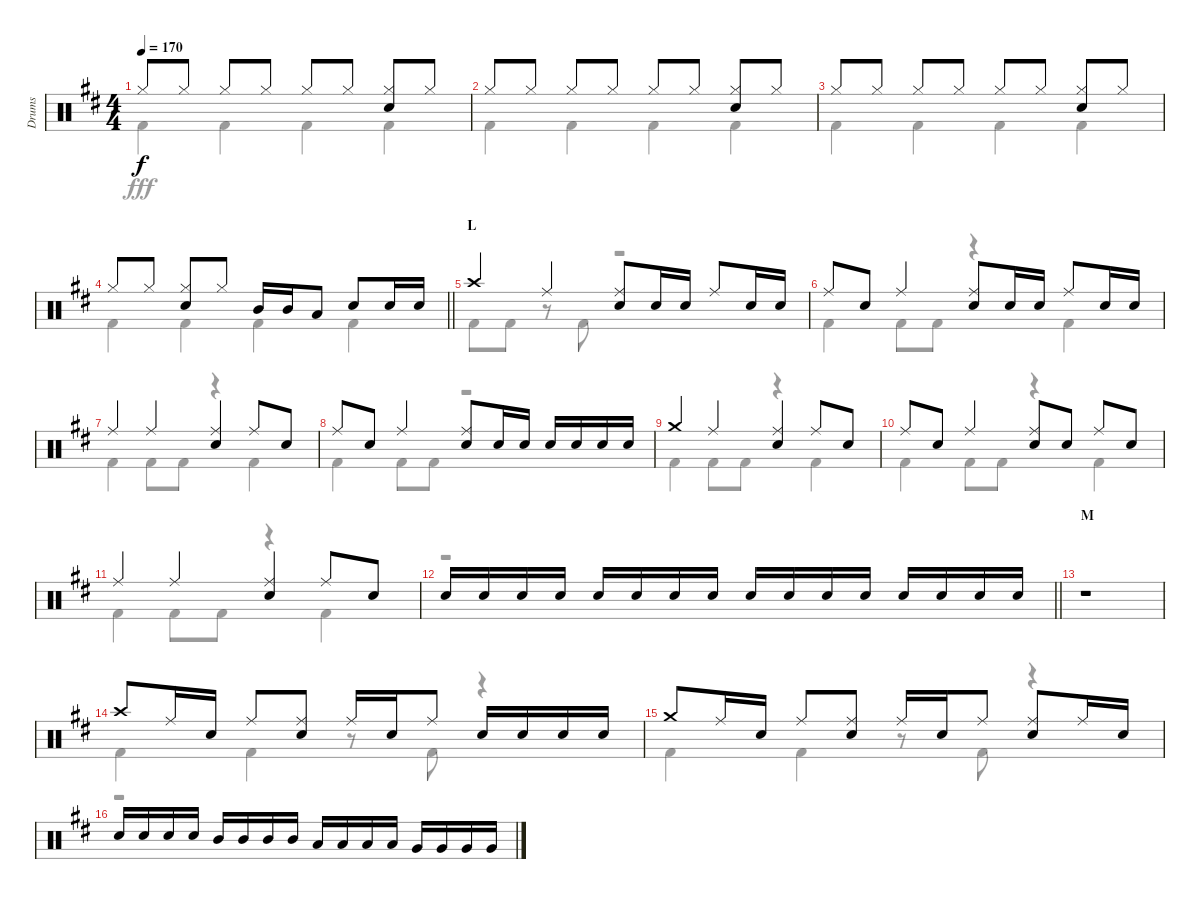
\track ("Drums" "Drums") {instrument percussion}
\staff {score}
\articulation defaults
\voice
\ts (4 4)
\tempo 170
\clef neutral
\ks d "Hi-Hat (closed)".8{dy f} "Hi-Hat (closed)".8 "Hi-Hat (closed)".8 "Hi-Hat (closed)".8 "Hi-Hat (closed)".8 "Hi-Hat (closed)".8
("Hi-Hat (closed)" "Snare (hit) 2").8 "Hi-Hat (closed)".8 |
"Hi-Hat (closed)".8 "Hi-Hat (closed)".8 "Hi-Hat (closed)".8 "Hi-Hat (closed)".8 "Hi-Hat (closed)".8 "Hi-Hat (closed)".8 ("Hi-Hat (closed)" "Snare (hit) 2").8 "Hi-Hat (closed)".8 |
"Hi-Hat (closed)".8 "Hi-Hat (closed)".8 "Hi-Hat (closed)".8 "Hi-Hat (closed)".8 "Hi-Hat (closed)".8 "Hi-Hat (closed)".8 ("Hi-Hat (closed)" "Snare (hit) 2").8 "Hi-Hat (closed)".8 |
\barLineRight lightlight "Hi-Hat (closed)".8 "Hi-Hat (closed)".8
("Hi-Hat (closed)" "Snare (hit) 2").8 "Hi-Hat (closed)".8 "Mid Tom (hit)".16 "Mid Tom (hit)".16 "Low Tom (hit)".8 "Snare (hit) 2".8 "Snare (hit) 2".16 "Snare (hit) 2".16 |
\section ("" "L")
"Crash high (hit)".4 "Ride (middle)".4 ("Ride (middle)" "Snare (hit) 2").8 "Snare (hit) 2".16 "Snare (hit) 2".16 "Ride (middle)".8 "Snare (hit) 2".16 "Snare (hit) 2".16 |
"Ride (middle)".8 "Snare (hit) 2".8 "Ride (middle)".4 ("Ride (middle)" "Snare (hit) 2").8 "Snare (hit) 2".16 "Snare (hit) 2".16 "Ride (middle)".8 "Snare (hit) 2".16 "Snare (hit) 2".16 |
"Ride (middle)".4 "Ride (middle)".4 ("Ride (middle)" "Snare (hit) 2").4 "Ride (middle)".8 "Snare (hit) 2".8 |
"Ride (middle)".8 "Snare (hit) 2".8 "Ride (middle)".4 ("Ride (middle)" "Snare (hit) 2").8 "Snare (hit) 2".16 "Snare (hit) 2".16 "Snare (hit) 2".16 "Snare (hit) 2".16 "Snare (hit) 2".16 "Snare (hit) 2".16 |
"Crash medium (hit)".4 "Ride (middle)".4 ("Ride (middle)" "Snare (hit) 2").4 "Ride (middle)".8 "Snare (hit) 2".8 |
"Ride (middle)".8 "Snare (hit) 2".8 "Ride (middle)".4 ("Ride (middle)" "Snare (hit) 2").8 "Snare (hit) 2".8 "Ride (middle)".8 "Snare (hit) 2".8 |
"Ride (middle)".4 "Ride (middle)".4 ("Ride (middle)" "Snare (hit) 2").4 "Ride (middle)".8 "Snare (hit) 2".8 |
\barLineRight lightlight "Snare (hit) 2".16 "Snare (hit) 2".16 "Snare (hit) 2".16 "Snare (hit) 2".16 "Snare (hit) 2".16 "Snare (hit) 2".16 "Snare (hit) 2".16 "Snare (hit) 2".16 "Snare (hit) 2".16 "Snare (hit) 2".16 "Snare (hit) 2".16 "Snare (hit) 2".16 "Snare (hit) 2".16 "Snare (hit) 2".16 "Snare (hit) 2".16 "Snare (hit) 2".16
|
\section ("" "M")
r.1 |
"Crash high (hit)".8 "Ride (middle)".16 "Snare (hit) 2".16 "Ride (middle)".8 ("Ride (middle)" "Snare (hit) 2").8 "Ride (middle)".16 "Snare (hit) 2".16 "Ride (middle)".8 "Snare (hit) 2".16 "Snare (hit) 2".16 "Snare (hit) 2".16 "Snare (hit) 2".16 |
"Crash medium (hit)".8 "Ride (middle)".16 "Snare (hit) 2".16 "Ride (middle)".8 ("Ride (middle)" "Snare (hit) 2").8 "Ride (middle)".16 "Snare (hit) 2".16 "Ride (middle)".8 ("Ride (middle)" "Snare (hit) 2").8 "Ride (middle)".16 "Snare (hit) 2".16 |
"Snare (hit) 2".16 "Snare (hit) 2".16 "Snare (hit) 2".16 "Snare (hit) 2".16 "Mid Tom (hit)".16 "Mid Tom (hit)".16 "Mid Tom (hit)".16 "Mid Tom (hit)".16 "Low Tom (hit)".16 "Low Tom (hit)".16 "Low Tom (hit)".16 "Low Tom (hit)".16 "Very Low Tom (hit)".16 "Very Low Tom (hit)".16 "Very Low Tom (hit)".16 "Very Low Tom (hit)".16
\voice
\clef neutral
\ottava regular
\simile none
\ks d "Kick (hit) 2".4{dy fff} "Kick (hit) 2".4 "Kick (hit) 2".4 "Kick (hit) 2".4
|
"Kick (hit) 2".4 "Kick (hit) 2".4 "Kick (hit) 2".4 "Kick (hit) 2".4 |
"Kick (hit) 2".4 "Kick (hit) 2".4 "Kick (hit) 2".4 "Kick (hit) 2".4 |
\barLineRight lightlight "Kick (hit) 2".4 "Kick (hit) 2".4 "Kick (hit) 2".4 "Kick (hit) 2".4
|
"Kick (hit) 2".8 "Kick (hit) 2".8 r.8 "Kick (hit) 2".8 r.2 |
"Kick (hit) 2".4 "Kick (hit) 2".8 "Kick (hit) 2".8 r.4 "Kick (hit) 2".4 |
"Kick (hit) 2".4 "Kick (hit) 2".8 "Kick (hit) 2".8 r.4 "Kick (hit) 2".4 |
"Kick (hit) 2".4 "Kick (hit) 2".8 "Kick (hit) 2".8 r.2 |
"Kick (hit) 2".4 "Kick (hit) 2".8 "Kick (hit) 2".8 r.4 "Kick (hit) 2".4 |
"Kick (hit) 2".4 "Kick (hit) 2".8 "Kick (hit) 2".8 r.4 "Kick (hit) 2".4 |
"Kick (hit) 2".4 "Kick (hit) 2".8 "Kick (hit) 2".8 r.4 "Kick (hit) 2".4 |
\barLineRight lightlight
r.1 |
r.1 |
"Kick (hit) 2".4 "Kick (hit) 2".4 r.8 "Kick (hit) 2".8 r.4 |
"Kick (hit) 2".4 "Kick (hit) 2".4 r.8 "Kick (hit) 2".8 r.4 |
r.1
